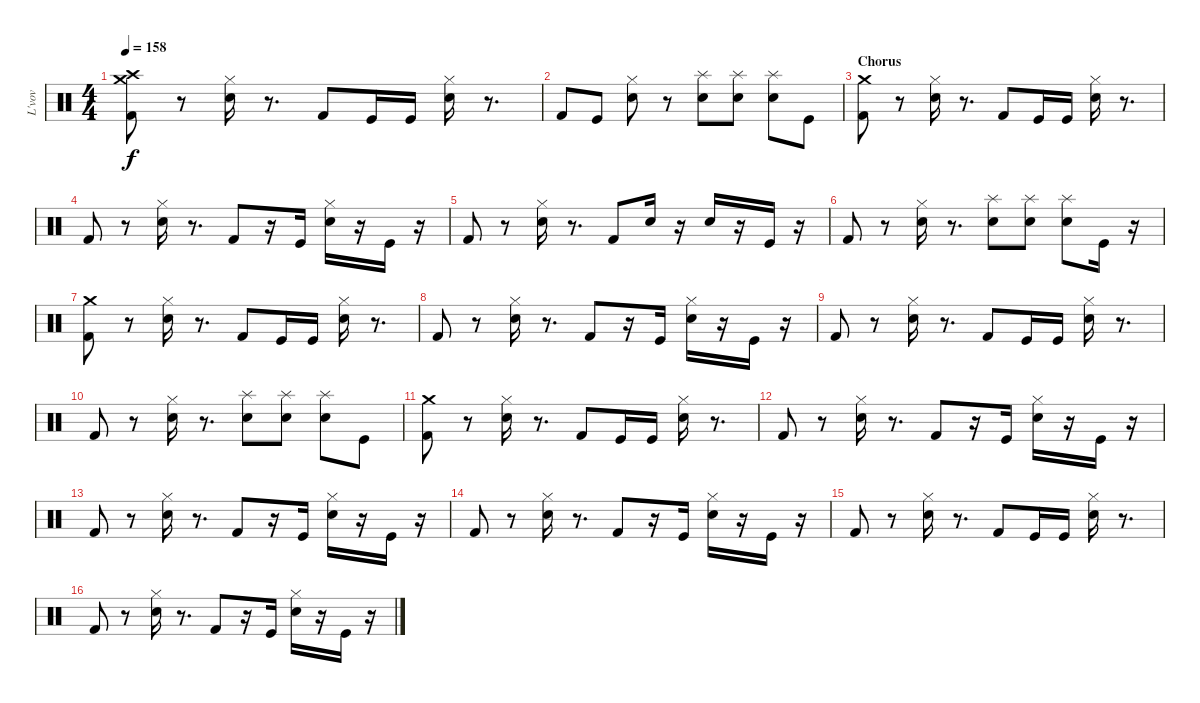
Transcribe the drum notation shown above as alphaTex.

\track ("L'vov " "L'vov ") {instrument percussion}
\staff {score}
\articulation defaults
\ts (4 4)
\tempo 158
\clef neutral
\ks c
("Crash high (hit)" "Crash medium (hit)" "Kick (hit) 2").8{dy f} r.8 ("Snare (hit) 2" "Hi-Hat (closed)").16 r.8{d} "Kick (hit) 2".8 "Kick (hit)".16 "Kick (hit)".16 ("Snare (hit) 2" "Hi-Hat (closed)").16 r.8{d} |
"Kick (hit) 2".8 "Kick (hit)".8 ("Snare (hit) 2" "Hi-Hat (closed)").8 r.8 ("Splash (hit)" "Electric Snare (hit)").8 ("Splash (hit)" "Electric Snare (hit)").8 ("Splash (hit)" "Electric Snare (hit)").8 "Kick (hit)".8 |
\section ("" "Chorus")
("Crash medium (hit)" "Kick (hit) 2").8 r.8 ("Snare (hit) 2" "Hi-Hat (closed)").16 r.8{d} "Kick (hit) 2".8 "Kick (hit)".16 "Kick (hit)".16 ("Snare (hit) 2" "Hi-Hat (closed)").16 r.8{d} |
"Kick (hit) 2".8 r.8 ("Snare (hit) 2" "Hi-Hat (closed)").16 r.8{d} "Kick (hit) 2".8 r.16 "Kick (hit)".16 ("Electric Snare (hit)" "Hi-Hat (closed)").16 r.16 "Kick (hit)".16 r.16 |
"Kick (hit) 2".8 r.8 ("Snare (hit) 2" "Hi-Hat (closed)").16 r.8{d} "Kick (hit) 2".8 "Electric Snare (hit)".16 r.16 "Electric Snare (hit)".16 r.16 "Kick (hit)".16 r.16 |
"Kick (hit) 2".8 r.8 ("Snare (hit) 2" "Hi-Hat (closed)").16 r.8{d} ("Splash (hit)" "Electric Snare (hit)").8 ("Splash (hit)" "Electric Snare (hit)").8 ("Splash (hit)" "Electric Snare (hit)").8 "Kick (hit)".16 r.16 |
("Crash medium (hit)" "Kick (hit) 2").8 r.8 ("Snare (hit) 2" "Hi-Hat (closed)").16 r.8{d} "Kick (hit) 2".8 "Kick (hit)".16 "Kick (hit)".16 ("Snare (hit) 2" "Hi-Hat (closed)").16 r.8{d} |
"Kick (hit) 2".8 r.8 ("Snare (hit) 2" "Hi-Hat (closed)").16 r.8{d} "Kick (hit) 2".8 r.16 "Kick (hit)".16 ("Electric Snare (hit)" "Hi-Hat (closed)").16 r.16 "Kick (hit)".16 r.16 |
"Kick (hit) 2".8 r.8 ("Snare (hit) 2" "Hi-Hat (closed)").16 r.8{d} "Kick (hit) 2".8 "Kick (hit)".16 "Kick (hit)".16 ("Snare (hit) 2" "Hi-Hat (closed)").16 r.8{d} |
"Kick (hit) 2".8 r.8 ("Snare (hit) 2" "Hi-Hat (closed)").16 r.8{d} ("Splash (hit)" "Electric Snare (hit)").8 ("Splash (hit)" "Electric Snare (hit)").8 ("Splash (hit)" "Electric Snare (hit)").8 "Kick (hit)".8 |
("Crash medium (hit)" "Kick (hit) 2").8 r.8 ("Snare (hit) 2" "Hi-Hat (closed)").16 r.8{d} "Kick (hit) 2".8 "Kick (hit)".16 "Kick (hit)".16 ("Snare (hit) 2" "Hi-Hat (closed)").16 r.8{d} |
"Kick (hit) 2".8 r.8 ("Snare (hit) 2" "Hi-Hat (closed)").16 r.8{d} "Kick (hit) 2".8 r.16 "Kick (hit)".16 ("Electric Snare (hit)" "Hi-Hat (closed)").16 r.16 "Kick (hit)".16 r.16 |
"Kick (hit) 2".8 r.8 ("Snare (hit) 2" "Hi-Hat (closed)").16 r.8{d} "Kick (hit) 2".8 r.16 "Kick (hit)".16 ("Snare (hit) 2" "Hi-Hat (closed)").16 r.16 "Kick (hit)".16 r.16 |
"Kick (hit) 2".8 r.8 ("Snare (hit) 2" "Hi-Hat (closed)").16 r.8{d} "Kick (hit) 2".8 r.16 "Kick (hit)".16 ("Electric Snare (hit)" "Hi-Hat (closed)").16 r.16 "Kick (hit)".16 r.16 |
"Kick (hit) 2".8 r.8 ("Snare (hit) 2" "Hi-Hat (closed)").16 r.8{d} "Kick (hit) 2".8 "Kick (hit)".16 "Kick (hit)".16 ("Snare (hit) 2" "Hi-Hat (closed)").16 r.8{d} |
"Kick (hit) 2".8 r.8 ("Snare (hit) 2" "Hi-Hat (closed)").16 r.8{d} "Kick (hit) 2".8 r.16 "Kick (hit)".16 ("Electric Snare (hit)" "Hi-Hat (closed)").16 r.16 "Kick (hit)".16 r.16
